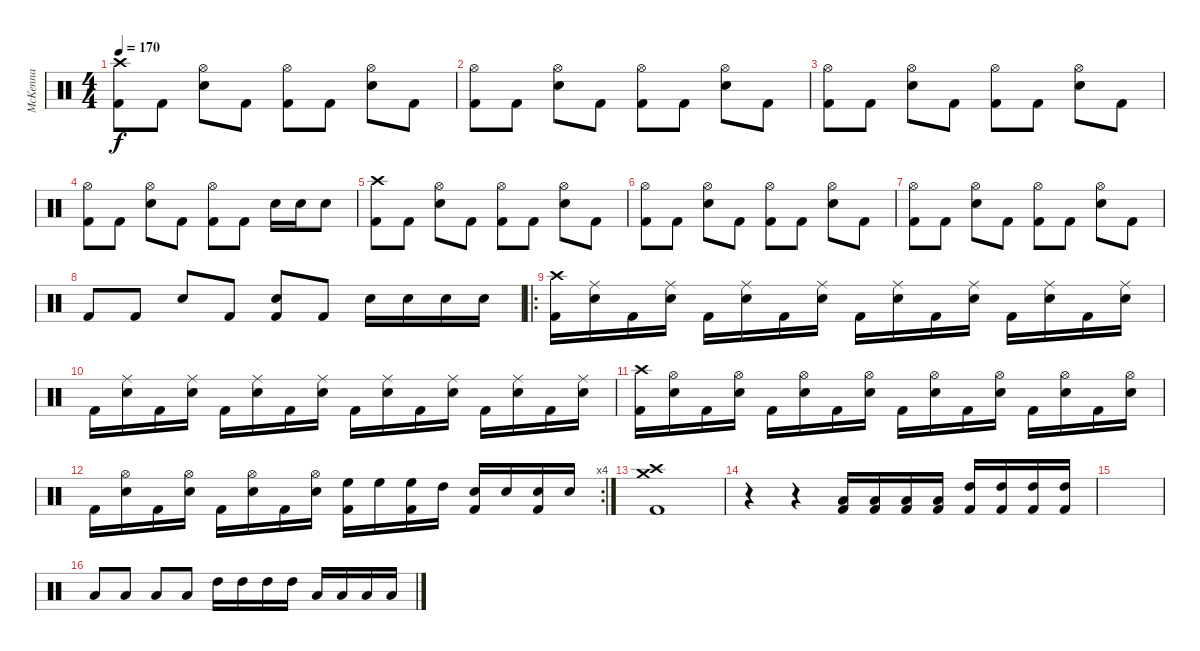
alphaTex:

\track ("McKenna" "McKenna") {instrument percussion}
\staff {score}
\articulation defaults
\ts (4 4)
\tempo 170
\clef neutral
\ks c
("Crash high (hit)" "Kick (hit) 2").8{dy f} "Kick (hit) 2".8 ("Hi-Hat (open)" "Snare (hit) 2").8 "Kick (hit) 2".8 ("Hi-Hat (open)" "Kick (hit) 2").8 "Kick (hit) 2".8 ("Hi-Hat (open)" "Snare (hit) 2").8 "Kick (hit) 2".8 |
("Hi-Hat (open)" "Kick (hit) 2").8 "Kick (hit) 2".8 ("Hi-Hat (open)" "Snare (hit) 2").8 "Kick (hit) 2".8 ("Hi-Hat (open)" "Kick (hit) 2").8 "Kick (hit) 2".8 ("Hi-Hat (open)" "Snare (hit) 2").8 "Kick (hit) 2".8 |
("Hi-Hat (open)" "Kick (hit) 2").8 "Kick (hit) 2".8 ("Hi-Hat (open)" "Snare (hit) 2").8 "Kick (hit) 2".8 ("Hi-Hat (open)" "Kick (hit) 2").8 "Kick (hit) 2".8 ("Hi-Hat (open)" "Snare (hit) 2").8 "Kick (hit) 2".8 |
("Hi-Hat (open)" "Kick (hit) 2").8 "Kick (hit) 2".8 ("Hi-Hat (open)" "Snare (hit) 2").8 "Kick (hit) 2".8 ("Hi-Hat (open)" "Kick (hit) 2").8 "Kick (hit) 2".8 "Snare (hit) 2".16 "Snare (hit) 2".16 "Snare (hit) 2".8 |
("Crash high (hit)" "Kick (hit) 2").8 "Kick (hit) 2".8 ("Hi-Hat (open)" "Snare (hit) 2").8 "Kick (hit) 2".8 ("Hi-Hat (open)" "Kick (hit) 2").8 "Kick (hit) 2".8 ("Hi-Hat (open)" "Snare (hit) 2").8 "Kick (hit) 2".8 |
("Hi-Hat (open)" "Kick (hit) 2").8 "Kick (hit) 2".8 ("Hi-Hat (open)" "Snare (hit) 2").8 "Kick (hit) 2".8 ("Hi-Hat (open)" "Kick (hit) 2").8 "Kick (hit) 2".8 ("Hi-Hat (open)" "Snare (hit) 2").8 "Kick (hit) 2".8 |
("Hi-Hat (open)" "Kick (hit) 2").8 "Kick (hit) 2".8 ("Hi-Hat (open)" "Snare (hit) 2").8 "Kick (hit) 2".8 ("Hi-Hat (open)" "Kick (hit) 2").8 "Kick (hit) 2".8 ("Hi-Hat (open)" "Snare (hit) 2").8 "Kick (hit) 2".8 |
"Kick (hit) 2".8 "Kick (hit) 2".8 "Snare (hit) 2".8 "Kick (hit) 2".8 ("Snare (hit) 2" "Kick (hit) 2").8 "Kick (hit) 2".8 "Snare (hit) 2".16 "Snare (hit) 2".16 "Snare (hit) 2".16 "Snare (hit) 2".16 |
\ro
("Crash high (hit)" "Kick (hit) 2").16 ("Ride (middle)" "Snare (hit) 2").16 "Kick (hit) 2".16 ("Ride (middle)" "Snare (hit) 2").16 "Kick (hit) 2".16 ("Ride (middle)" "Snare (hit) 2").16 "Kick (hit) 2".16 ("Ride (middle)" "Snare (hit) 2").16 "Kick (hit) 2".16 ("Ride (middle)" "Snare (hit) 2").16 "Kick (hit) 2".16 ("Ride (middle)" "Snare (hit) 2").16 "Kick (hit) 2".16 ("Ride (middle)" "Snare (hit) 2").16 "Kick (hit) 2".16 ("Ride (middle)" "Snare (hit) 2").16 |
"Kick (hit) 2".16 ("Ride (middle)" "Snare (hit) 2").16 "Kick (hit) 2".16 ("Ride (middle)" "Snare (hit) 2").16 "Kick (hit) 2".16 ("Ride (middle)" "Snare (hit) 2").16 "Kick (hit) 2".16 ("Ride (middle)" "Snare (hit) 2").16 "Kick (hit) 2".16 ("Ride (middle)" "Snare (hit) 2").16 "Kick (hit) 2".16 ("Ride (middle)" "Snare (hit) 2").16 "Kick (hit) 2".16 ("Ride (middle)" "Snare (hit) 2").16 "Kick (hit) 2".16 ("Ride (middle)" "Snare (hit) 2").16 |
("Crash high (hit)" "Kick (hit) 2").16 ("Hi-Hat (open)" "Snare (hit) 2").16 "Kick (hit) 2".16 ("Hi-Hat (open)" "Snare (hit) 2").16 "Kick (hit) 2".16 ("Hi-Hat (open)" "Snare (hit) 2").16 "Kick (hit) 2".16 ("Hi-Hat (open)" "Snare (hit) 2").16 "Kick (hit) 2".16 ("Hi-Hat (open)" "Snare (hit) 2").16 "Kick (hit) 2".16 ("Hi-Hat (open)" "Snare (hit) 2").16 "Kick (hit) 2".16 ("Hi-Hat (open)" "Snare (hit) 2").16 "Kick (hit) 2".16 ("Hi-Hat (open)" "Snare (hit) 2").16 |
\rc 4 "Kick (hit) 2".16
("Hi-Hat (open)" "Snare (hit) 2").16 "Kick (hit) 2".16 ("Hi-Hat (open)" "Snare (hit) 2").16 "Kick (hit) 2".16 ("Hi-Hat (open)" "Snare (hit) 2").16 "Kick (hit) 2".16 ("Hi-Hat (open)" "Snare (hit) 2").16 ("High Floor Tom (hit)" "Kick (hit) 2").16 "High Floor Tom (hit)".16 ("High Floor Tom (hit)" "Kick (hit) 2").16 "High Tom (hit)".16 ("Snare (hit) 2" "Kick (hit) 2").16 "Snare (hit) 2".16 ("Snare (hit) 2" "Kick (hit) 2").16 "Snare (hit) 2".16 |
("Crash medium (hit)" "Crash high (hit)" "Kick (hit) 2").1 |
r.4 r.4 ("Low Tom (hit)" "Kick (hit) 2").16 ("Low Tom (hit)" "Kick (hit) 2").16 ("Low Tom (hit)" "Kick (hit) 2").16 ("Low Tom (hit)" "Kick (hit) 2").16 ("High Tom (hit)" "Kick (hit) 2").16 ("High Tom (hit)" "Kick (hit) 2").16 ("High Tom (hit)" "Kick (hit) 2").16 ("High Tom (hit)" "Kick (hit) 2").16 |
|
"Low Tom (hit)".8 "Low Tom (hit)".8 "Low Tom (hit)".8 "Low Tom (hit)".8 "High Tom (hit)".16 "High Tom (hit)".16 "High Tom (hit)".16 "High Tom (hit)".16 "Low Tom (hit)".16 "Low Tom (hit)".16 "Low Tom (hit)".16 "Low Tom (hit)".16
